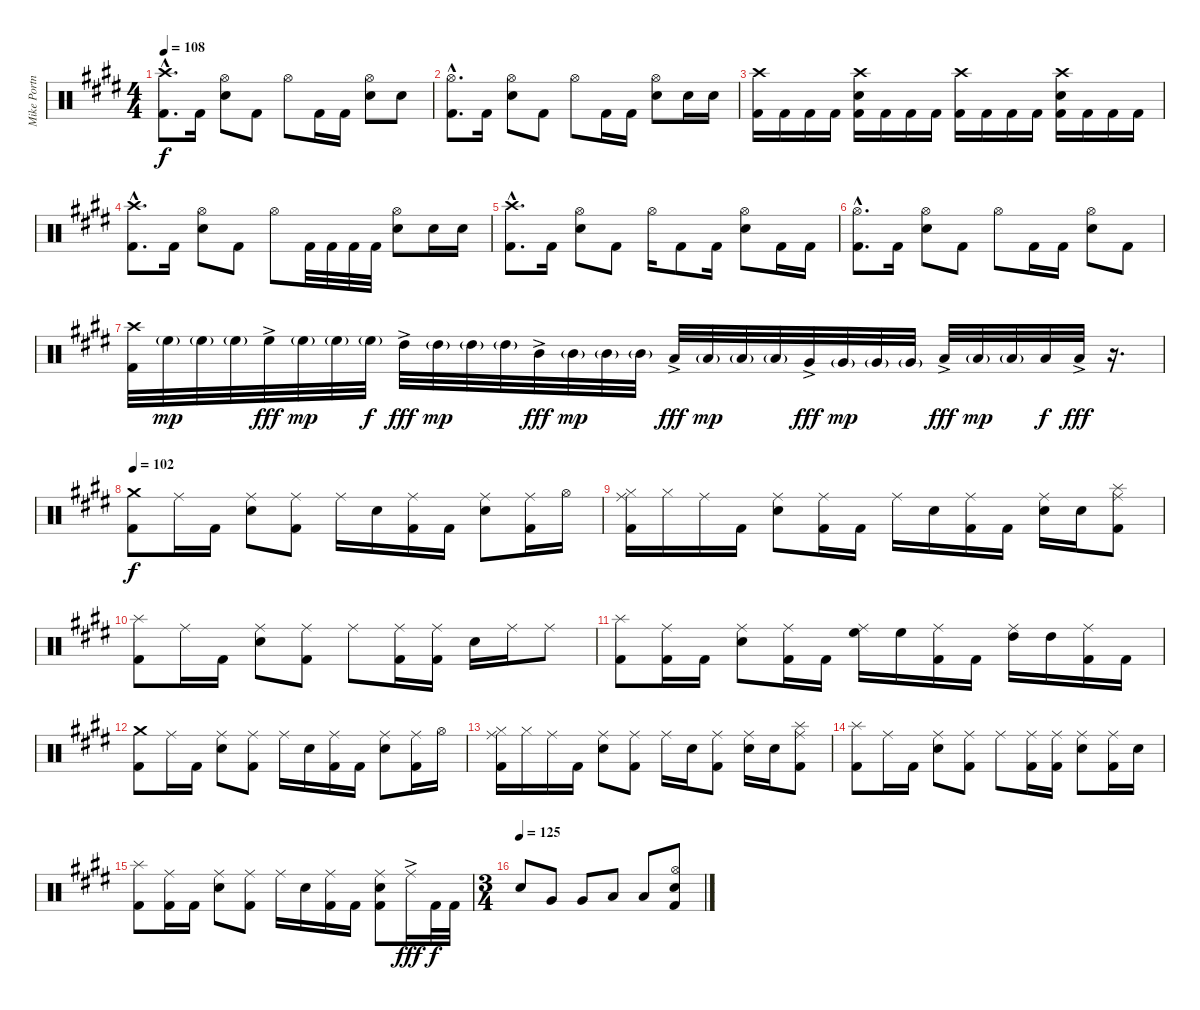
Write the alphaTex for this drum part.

\track ("Mike Portnoy" "Mike Portn") {instrument percussion}
\staff {score}
\articulation defaults
\ts (4 4)
\tempo 108
\clef neutral
\ks e
("Crash high (hit)"{hac} "Kick (hit) 2"{hac}).8{d dy f} "Kick (hit) 2".16 ("Hi-Hat (open)" "Snare (hit) 2").8 "Kick (hit) 2".8 "Hi-Hat (open)".8 "Kick (hit) 2".16 "Kick (hit) 2".16 ("Hi-Hat (open)" "Snare (hit) 2").8 "Snare (hit) 2".8 |
("Hi-Hat (open)"{hac} "Kick (hit) 2"{hac}).8{d} "Kick (hit) 2".16 ("Hi-Hat (open)" "Snare (hit) 2").8 "Kick (hit) 2".8 "Hi-Hat (open)".8 "Kick (hit) 2".16 "Kick (hit) 2".16 ("Hi-Hat (open)" "Snare (hit) 2").8 "Snare (hit) 2".16 "Snare (hit) 2".16 |
("Crash high (hit)" "Kick (hit) 2").16 "Kick (hit) 2".16 "Kick (hit) 2".16 "Kick (hit) 2".16 ("Crash high (hit)" "Snare (hit) 2" "Kick (hit) 2").16 "Kick (hit) 2".16 "Kick (hit) 2".16 "Kick (hit) 2".16 ("Crash high (hit)" "Kick (hit) 2").16 "Kick (hit) 2".16 "Kick (hit) 2".16 "Kick (hit) 2".16 ("Crash high (hit)" "Snare (hit) 2" "Kick (hit) 2").16 "Kick (hit) 2".16 "Kick (hit) 2".16 "Kick (hit) 2".16 |
("Crash high (hit)"{hac} "Kick (hit) 2"{hac}).8{d} "Kick (hit) 2".16 ("Hi-Hat (open)" "Snare (hit) 2").8 "Kick (hit) 2".8 "Hi-Hat (open)".8 "Kick (hit) 2".32 "Kick (hit) 2".32 "Kick (hit) 2".32 "Kick (hit) 2".32 ("Hi-Hat (open)" "Snare (hit) 2").8 "Snare (hit) 2".16 "Snare (hit) 2".16 |
("Crash high (hit)"{hac} "Kick (hit) 2"{hac}).8{d} "Kick (hit) 2".16 ("Hi-Hat (open)" "Snare (hit) 2").8 "Kick (hit) 2".8 "Hi-Hat (open)".16 "Kick (hit) 2".8 "Kick (hit) 2".16 ("Hi-Hat (open)" "Snare (hit) 2").8 "Kick (hit) 2".16 "Kick (hit) 2".16 |
("Hi-Hat (open)"{hac} "Kick (hit) 2"{hac}).8{d} "Kick (hit) 2".16 ("Hi-Hat (open)" "Snare (hit) 2").8 "Kick (hit) 2".8 "Hi-Hat (open)".8 "Kick (hit) 2".16 "Kick (hit) 2".16 ("Hi-Hat (open)" "Snare (hit) 2").8 "Kick (hit) 2".8 |
("Crash high (hit)" "Kick (hit) 2").32{volume 11} "High Floor Tom (hit)"{g}.32{dy mp} "High Floor Tom (hit)"{g}.32 "High Floor Tom (hit)"{g}.32 "High Floor Tom (hit)"{ac}.32{dy fff} "High Floor Tom (hit)"{g}.32{dy mp} "High Floor Tom (hit)"{g}.32 "High Floor Tom (hit)"{g}.32{dy f} "High Tom (hit)"{ac}.32{dy fff} "High Tom (hit)"{g}.32{dy mp} "High Tom (hit)"{g}.32 "High Tom (hit)"{g}.32 "Mid Tom (hit)"{ac}.32{dy fff} "Mid Tom (hit)"{g}.32{dy mp} "Mid Tom (hit)"{g}.32 "Mid Tom (hit)"{g}.32 "Low Tom (hit)"{ac}.32{dy fff} "Low Tom (hit)"{g}.32{dy mp} "Low Tom (hit)"{g}.32 "Low Tom (hit)"{g}.32 "Very Low Tom (hit)"{ac}.32{dy fff} "Very Low Tom (hit)"{g}.32{dy mp} "Very Low Tom (hit)"{g}.32 "Very Low Tom (hit)"{g}.32 "Low Floor Tom (hit)"{ac}.32{dy fff} "Low Floor Tom (hit)"{g}.32{dy mp} "Low Floor Tom (hit)"{g}.32 "Low Floor Tom (hit)".32{dy f} "Low Floor Tom (hit)"{ac}.32{dy fff} r.16{d} |
\tempo 102
("Crash medium (hit)" "Kick (hit) 2").8{dy f volume 14} "Ride (middle)".16 "Kick (hit) 2".16 ("Ride (middle)" "Snare (hit) 2").8 ("Ride (middle)" "Kick (hit) 2").8 "Ride (middle)".16 "Snare (hit) 2".16 ("Ride (middle)" "Kick (hit) 2").16 "Kick (hit) 2".16 ("Ride (middle)" "Snare (hit) 2").8 ("Ride (middle)" "Kick (hit) 2").16 "Hi-Hat (open)".16 |
("Hi-Hat (closed)" "Ride (middle)" "Kick (hit) 2").16 "Hi-Hat (closed)".16 "Ride (middle)".16 "Kick (hit) 2".16 ("Ride (middle)" "Snare (hit) 2").8 ("Ride (middle)" "Kick (hit) 2").16 "Kick (hit) 2".16 "Ride (middle)".16 "Snare (hit) 2".16 ("Ride (middle)" "Kick (hit) 2").16 "Kick (hit) 2".16 ("Ride (middle)" "Snare (hit) 2").16 "Snare (hit) 2".16 ("Splash (hit)" "Ride (middle)" "Kick (hit) 2").8 |
("Splash (hit)" "Kick (hit) 2").8 "Ride (middle)".16 "Kick (hit) 2".16 ("Ride (middle)" "Snare (hit) 2").8 ("Ride (middle)" "Kick (hit) 2").8 "Ride (middle)".8 ("Ride (middle)" "Kick (hit) 2").16 ("Ride (middle)" "Kick (hit) 2").16 "Snare (hit) 2".16 "Ride (middle)".16 "Ride (middle)".8 |
("Splash (hit)" "Kick (hit) 2").8 ("Ride (middle)" "Kick (hit) 2").16 "Kick (hit) 2".16 ("Ride (middle)" "Snare (hit) 2").8 ("Ride (middle)" "Kick (hit) 2").16 "Kick (hit) 2".16 ("Ride (middle)" "High Floor Tom (hit)").16 "High Floor Tom (hit)".16 ("Ride (middle)" "Kick (hit) 2").16 "Kick (hit) 2".16 ("Ride (middle)" "High Tom (hit)").16 "High Tom (hit)".16 ("Ride (middle)" "Kick (hit) 2").16 "Kick (hit) 2".16 |
("Crash medium (hit)" "Kick (hit) 2").8 "Ride (middle)".16 "Kick (hit) 2".16 ("Ride (middle)" "Snare (hit) 2").8 ("Ride (middle)" "Kick (hit) 2").8 "Ride (middle)".16 "Snare (hit) 2".16 ("Ride (middle)" "Kick (hit) 2").16 "Kick (hit) 2".16 ("Ride (middle)" "Snare (hit) 2").8 ("Ride (middle)" "Kick (hit) 2").16 "Hi-Hat (open)".16 |
("Hi-Hat (closed)" "Ride (middle)" "Kick (hit) 2").16 "Hi-Hat (closed)".16 "Ride (middle)".16 "Kick (hit) 2".16 ("Ride (middle)" "Snare (hit) 2").8 ("Ride (middle)" "Kick (hit) 2").8 "Ride (middle)".16 "Snare (hit) 2".16 ("Ride (middle)" "Kick (hit) 2").8 ("Ride (middle)" "Snare (hit) 2").16 "Snare (hit) 2".16 ("Splash (hit)" "Ride (middle)" "Kick (hit) 2").8 |
("Splash (hit)" "Kick (hit) 2").8 "Ride (middle)".16 "Kick (hit) 2".16 ("Ride (middle)" "Snare (hit) 2").8 ("Ride (middle)" "Kick (hit) 2").8 "Ride (middle)".8 ("Ride (middle)" "Kick (hit) 2").16 ("Ride (middle)" "Kick (hit) 2").16 ("Ride (middle)" "Snare (hit) 2").8 ("Ride (middle)" "Kick (hit) 2").16 "Snare (hit) 2".16 |
("Splash (hit)" "Kick (hit) 2").8 ("Ride (middle)" "Kick (hit) 2").16 "Kick (hit) 2".16 ("Ride (middle)" "Snare (hit) 2").8 ("Ride (middle)" "Kick (hit) 2").8 "Ride (middle)".16 "Snare (hit) 2".16 ("Ride (middle)" "Kick (hit) 2").16 "Kick (hit) 2".16 ("Ride (middle)" "Snare (hit) 2" "Kick (hit) 2").8 "Ride (middle)"{ac}.16{dy fff} "Kick (hit) 2".32{dy f} "Kick (hit) 2".32 |
\ts (3 4)
\tempo (125)
"Snare (hit) 2".8 "Very Low Tom (hit)".8 "Very Low Tom (hit)".8 "Low Floor Tom (hit)".8 "Low Floor Tom (hit)".8 ("Hi-Hat (open)" "Snare (hit) 2" "Kick (hit) 2").8
